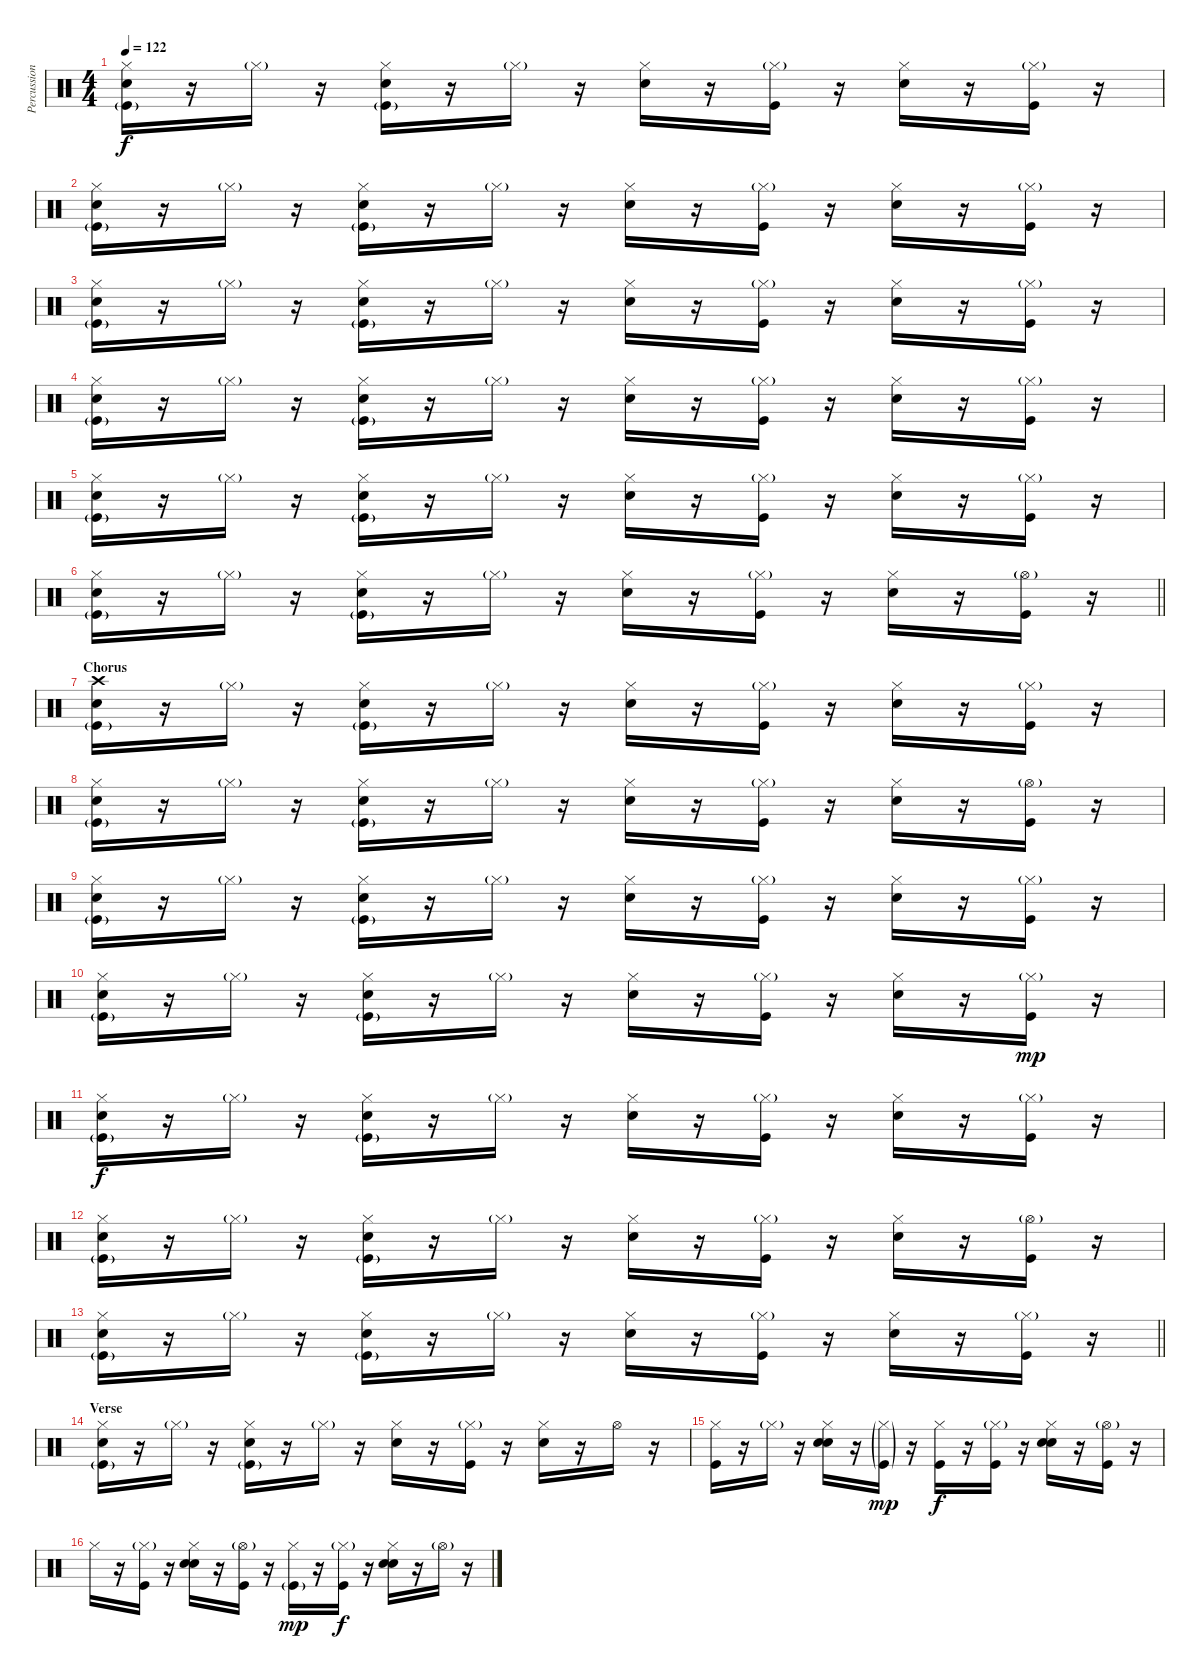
\track ("Percussion" "Percussion") {instrument percussion bank 177}
\staff {score}
\articulation defaults
\ts (4 4)
\tempo 122
\clef neutral
\ks c
("Hi-Hat (closed)" "Snare (hit) 2" "Kick (hit)"{g}).16{dy f} r.16 "Hi-Hat (closed)"{g}.16 r.16 ("Hi-Hat (closed)" "Snare (hit) 2" "Kick (hit)"{g}).16 r.16 "Hi-Hat (closed)"{g}.16 r.16 ("Hi-Hat (closed)" "Snare (hit) 2").16 r.16 ("Hi-Hat (closed)"{g} "Kick (hit)").16 r.16 ("Hi-Hat (closed)" "Snare (hit) 2").16 r.16 ("Hi-Hat (closed)"{g} "Kick (hit)").16 r.16 |
("Hi-Hat (closed)" "Snare (hit) 2" "Kick (hit)"{g}).16 r.16 "Hi-Hat (closed)"{g}.16 r.16 ("Hi-Hat (closed)" "Snare (hit) 2" "Kick (hit)"{g}).16 r.16 "Hi-Hat (closed)"{g}.16 r.16 ("Hi-Hat (closed)" "Snare (hit) 2").16 r.16 ("Hi-Hat (closed)"{g} "Kick (hit)").16 r.16 ("Hi-Hat (closed)" "Snare (hit) 2").16 r.16 ("Hi-Hat (closed)"{g} "Kick (hit)").16 r.16 |
("Hi-Hat (closed)" "Snare (hit) 2" "Kick (hit)"{g}).16 r.16 "Hi-Hat (closed)"{g}.16 r.16 ("Hi-Hat (closed)" "Snare (hit) 2" "Kick (hit)"{g}).16 r.16 "Hi-Hat (closed)"{g}.16 r.16 ("Hi-Hat (closed)" "Snare (hit) 2").16 r.16 ("Hi-Hat (closed)"{g} "Kick (hit)").16 r.16 ("Hi-Hat (closed)" "Snare (hit) 2").16 r.16 ("Hi-Hat (closed)"{g} "Kick (hit)").16 r.16 |
("Hi-Hat (closed)" "Snare (hit) 2" "Kick (hit)"{g}).16 r.16 "Hi-Hat (closed)"{g}.16 r.16 ("Hi-Hat (closed)" "Snare (hit) 2" "Kick (hit)"{g}).16 r.16 "Hi-Hat (closed)"{g}.16 r.16 ("Hi-Hat (closed)" "Snare (hit) 2").16 r.16 ("Hi-Hat (closed)"{g} "Kick (hit)").16 r.16 ("Hi-Hat (closed)" "Snare (hit) 2").16 r.16 ("Hi-Hat (closed)"{g} "Kick (hit)").16 r.16 |
("Hi-Hat (closed)" "Snare (hit) 2" "Kick (hit)"{g}).16 r.16 "Hi-Hat (closed)"{g}.16 r.16 ("Hi-Hat (closed)" "Snare (hit) 2" "Kick (hit)"{g}).16 r.16 "Hi-Hat (closed)"{g}.16 r.16 ("Hi-Hat (closed)" "Snare (hit) 2").16 r.16 ("Hi-Hat (closed)"{g} "Kick (hit)").16 r.16 ("Hi-Hat (closed)" "Snare (hit) 2").16 r.16 ("Hi-Hat (closed)"{g} "Kick (hit)").16 r.16 |
\barLineRight lightlight
("Hi-Hat (closed)" "Snare (hit) 2" "Kick (hit)"{g}).16 r.16 "Hi-Hat (closed)"{g}.16 r.16 ("Hi-Hat (closed)" "Snare (hit) 2" "Kick (hit)"{g}).16 r.16 "Hi-Hat (closed)"{g}.16 r.16 ("Hi-Hat (closed)" "Snare (hit) 2").16 r.16 ("Hi-Hat (closed)"{g} "Kick (hit)").16 r.16 ("Hi-Hat (closed)" "Snare (hit) 2").16 r.16 ("Hi-Hat (open)"{g} "Kick (hit)").16 r.16 |
\section ("" "Chorus")
("Crash high (hit)" "Snare (hit) 2" "Kick (hit)"{g}).16 r.16 "Hi-Hat (closed)"{g}.16 r.16 ("Hi-Hat (closed)" "Snare (hit) 2" "Kick (hit)"{g}).16 r.16 "Hi-Hat (closed)"{g}.16 r.16 ("Hi-Hat (closed)" "Snare (hit) 2").16 r.16 ("Hi-Hat (closed)"{g} "Kick (hit)").16 r.16 ("Hi-Hat (closed)" "Snare (hit) 2").16 r.16 ("Hi-Hat (closed)"{g} "Kick (hit)").16 r.16 |
("Hi-Hat (closed)" "Snare (hit) 2" "Kick (hit)"{g}).16 r.16 "Hi-Hat (closed)"{g}.16 r.16 ("Hi-Hat (closed)" "Snare (hit) 2" "Kick (hit)"{g}).16 r.16 "Hi-Hat (closed)"{g}.16 r.16 ("Hi-Hat (closed)" "Snare (hit) 2").16 r.16 ("Hi-Hat (closed)"{g} "Kick (hit)").16 r.16 ("Hi-Hat (closed)" "Snare (hit) 2").16 r.16 ("Hi-Hat (open)"{g} "Kick (hit)").16 r.16 |
("Hi-Hat (closed)" "Snare (hit) 2" "Kick (hit)"{g}).16 r.16 "Hi-Hat (closed)"{g}.16 r.16 ("Hi-Hat (closed)" "Snare (hit) 2" "Kick (hit)"{g}).16 r.16 "Hi-Hat (closed)"{g}.16 r.16 ("Hi-Hat (closed)" "Snare (hit) 2").16 r.16 ("Hi-Hat (closed)"{g} "Kick (hit)").16 r.16 ("Hi-Hat (closed)" "Snare (hit) 2").16 r.16 ("Hi-Hat (closed)"{g} "Kick (hit)").16 r.16 |
("Hi-Hat (closed)" "Snare (hit) 2" "Kick (hit)"{g}).16 r.16 "Hi-Hat (closed)"{g}.16 r.16 ("Hi-Hat (closed)" "Snare (hit) 2" "Kick (hit)"{g}).16 r.16 "Hi-Hat (closed)"{g}.16 r.16 ("Hi-Hat (closed)" "Snare (hit) 2").16 r.16 ("Hi-Hat (closed)"{g} "Kick (hit)").16 r.16 ("Hi-Hat (closed)" "Snare (hit) 2").16 r.16 ("Hi-Hat (closed)"{g} "Kick (hit)").16{dy mp} r.16 |
("Hi-Hat (closed)" "Snare (hit) 2" "Kick (hit)"{g}).16{dy f} r.16 "Hi-Hat (closed)"{g}.16 r.16 ("Hi-Hat (closed)" "Snare (hit) 2" "Kick (hit)"{g}).16 r.16 "Hi-Hat (closed)"{g}.16 r.16 ("Hi-Hat (closed)" "Snare (hit) 2").16 r.16 ("Hi-Hat (closed)"{g} "Kick (hit)").16 r.16 ("Hi-Hat (closed)" "Snare (hit) 2").16 r.16 ("Hi-Hat (closed)"{g} "Kick (hit)").16 r.16 |
("Hi-Hat (closed)" "Snare (hit) 2" "Kick (hit)"{g}).16 r.16 "Hi-Hat (closed)"{g}.16 r.16 ("Hi-Hat (closed)" "Snare (hit) 2" "Kick (hit)"{g}).16 r.16 "Hi-Hat (closed)"{g}.16 r.16 ("Hi-Hat (closed)" "Snare (hit) 2").16 r.16 ("Hi-Hat (closed)"{g} "Kick (hit)").16 r.16 ("Hi-Hat (closed)" "Snare (hit) 2").16 r.16 ("Hi-Hat (open)"{g} "Kick (hit)").16 r.16 |
\barLineRight lightlight
("Hi-Hat (closed)" "Snare (hit) 2" "Kick (hit)"{g}).16 r.16 "Hi-Hat (closed)"{g}.16 r.16 ("Hi-Hat (closed)" "Snare (hit) 2" "Kick (hit)"{g}).16 r.16 "Hi-Hat (closed)"{g}.16 r.16 ("Hi-Hat (closed)" "Snare (hit) 2").16 r.16 ("Hi-Hat (closed)"{g} "Kick (hit)").16 r.16 ("Hi-Hat (closed)" "Snare (hit) 2").16 r.16 ("Hi-Hat (closed)"{g} "Kick (hit)").16 r.16 |
\section ("" "Verse")
("Hi-Hat (closed)" "Snare (hit) 2" "Kick (hit)"{g}).16 r.16 "Hi-Hat (closed)"{g}.16 r.16 ("Hi-Hat (closed)" "Snare (hit) 2" "Kick (hit)"{g}).16 r.16 "Hi-Hat (closed)"{g}.16 r.16 ("Hi-Hat (closed)" "Snare (hit) 2").16 r.16 ("Hi-Hat (closed)"{g} "Kick (hit)").16 r.16 ("Hi-Hat (closed)" "Snare (hit) 2").16 r.16 "Hi-Hat (open)".16 r.16 |
("Hi-Hat (closed)" "Kick (hit)").16 r.16 "Hi-Hat (closed)"{g}.16 r.16 ("Hi-Hat (closed)" "Hand Clap (hit)" "Snare (hit) 2").16 r.16 ("Hi-Hat (closed)"{g} "Kick (hit)"{g}).16{dy mp} r.16 ("Hi-Hat (closed)" "Kick (hit)").16{dy f} r.16 ("Hi-Hat (closed)"{g} "Kick (hit)").16 r.16 ("Hi-Hat (closed)" "Hand Clap (hit)" "Snare (hit) 2").16 r.16 ("Hi-Hat (open)"{g} "Kick (hit)").16 r.16 |
"Hi-Hat (closed)".16 r.16 ("Hi-Hat (closed)"{g} "Kick (hit)").16 r.16 ("Hi-Hat (closed)" "Hand Clap (hit)" "Snare (hit) 2").16 r.16 ("Hi-Hat (open)"{g} "Kick (hit)").16 r.16 ("Hi-Hat (closed)" "Kick (hit)"{g}).16{dy mp} r.16 ("Hi-Hat (closed)"{g} "Kick (hit)").16{dy f} r.16 ("Hi-Hat (closed)" "Hand Clap (hit)" "Snare (hit) 2").16 r.16 "Hi-Hat (open)"{g}.16 r.16
